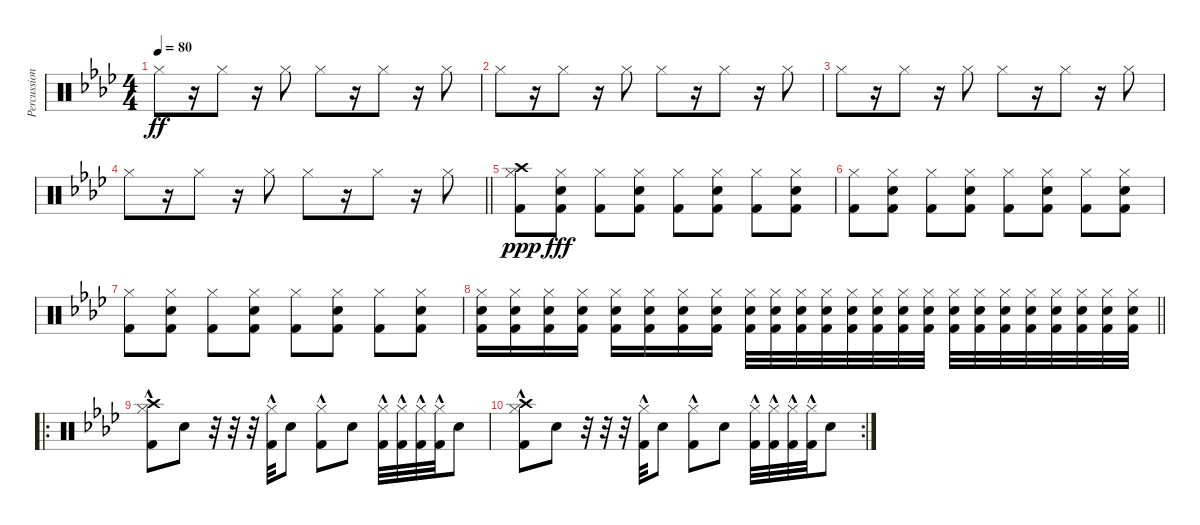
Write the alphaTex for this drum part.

\track ("Percussion" "Percussion") {instrument percussion}
\staff {score}
\articulation defaults
\ts (4 4)
\tempo 80
\clef neutral
\ks fminor "Hi-Hat (closed)".8{dy ff}
r.16 "Hi-Hat (closed)".8 r.16 "Hi-Hat (closed)".8 "Hi-Hat (closed)".8 r.16 "Hi-Hat (closed)".8 r.16 "Hi-Hat (closed)".8 |
"Hi-Hat (closed)".8 r.16 "Hi-Hat (closed)".8 r.16 "Hi-Hat (closed)".8 "Hi-Hat (closed)".8 r.16 "Hi-Hat (closed)".8 r.16 "Hi-Hat (closed)".8 |
"Hi-Hat (closed)".8 r.16 "Hi-Hat (closed)".8 r.16 "Hi-Hat (closed)".8 "Hi-Hat (closed)".8 r.16 "Hi-Hat (closed)".8 r.16 "Hi-Hat (closed)".8 |
\barLineRight lightlight "Hi-Hat (closed)".8
r.16 "Hi-Hat (closed)".8 r.16 "Hi-Hat (closed)".8 "Hi-Hat (closed)".8 r.16 "Hi-Hat (closed)".8 r.16 "Hi-Hat (closed)".8 |
("Hi-Hat (closed)" "Kick (hit) 2" "Crash high (hit)").8{dy ppp} ("Hi-Hat (closed)" "Kick (hit) 2" "Snare (hit) 2").8{dy fff} ("Hi-Hat (closed)" "Kick (hit) 2").8 ("Hi-Hat (closed)" "Kick (hit) 2" "Snare (hit) 2").8 ("Hi-Hat (closed)" "Kick (hit) 2").8 ("Hi-Hat (closed)" "Kick (hit) 2" "Snare (hit) 2").8 ("Hi-Hat (closed)" "Kick (hit) 2").8 ("Hi-Hat (closed)" "Kick (hit) 2" "Snare (hit) 2").8 |
("Hi-Hat (closed)" "Kick (hit) 2").8 ("Hi-Hat (closed)" "Kick (hit) 2" "Snare (hit) 2").8 ("Hi-Hat (closed)" "Kick (hit) 2").8 ("Hi-Hat (closed)" "Kick (hit) 2" "Snare (hit) 2").8 ("Hi-Hat (closed)" "Kick (hit) 2").8 ("Hi-Hat (closed)" "Kick (hit) 2" "Snare (hit) 2").8 ("Hi-Hat (closed)" "Kick (hit) 2").8 ("Hi-Hat (closed)" "Kick (hit) 2" "Snare (hit) 2").8 |
("Hi-Hat (closed)" "Kick (hit) 2").8 ("Hi-Hat (closed)" "Kick (hit) 2" "Snare (hit) 2").8 ("Hi-Hat (closed)" "Kick (hit) 2").8 ("Hi-Hat (closed)" "Kick (hit) 2" "Snare (hit) 2").8 ("Hi-Hat (closed)" "Kick (hit) 2").8 ("Hi-Hat (closed)" "Kick (hit) 2" "Snare (hit) 2").8 ("Hi-Hat (closed)" "Kick (hit) 2").8 ("Hi-Hat (closed)" "Kick (hit) 2" "Snare (hit) 2").8 |
\barLineRight lightlight
("Hi-Hat (closed)" "Kick (hit) 2" "Snare (hit) 2").16 ("Hi-Hat (closed)" "Kick (hit) 2" "Snare (hit) 2").16 ("Hi-Hat (closed)" "Kick (hit) 2" "Snare (hit) 2").16 ("Hi-Hat (closed)" "Kick (hit) 2" "Snare (hit) 2").16 ("Hi-Hat (closed)" "Kick (hit) 2" "Snare (hit) 2").16 ("Hi-Hat (closed)" "Kick (hit) 2" "Snare (hit) 2").16 ("Hi-Hat (closed)" "Kick (hit) 2" "Snare (hit) 2").16 ("Hi-Hat (closed)" "Kick (hit) 2" "Snare (hit) 2").16 ("Hi-Hat (closed)" "Kick (hit) 2" "Snare (hit) 2").32 ("Hi-Hat (closed)" "Kick (hit) 2" "Snare (hit) 2").32 ("Hi-Hat (closed)" "Kick (hit) 2" "Snare (hit) 2").32 ("Hi-Hat (closed)" "Kick (hit) 2" "Snare (hit) 2").32 ("Hi-Hat (closed)" "Kick (hit) 2" "Snare (hit) 2").32 ("Hi-Hat (closed)" "Kick (hit) 2" "Snare (hit) 2").32 ("Hi-Hat (closed)" "Kick (hit) 2" "Snare (hit) 2").32 ("Hi-Hat (closed)" "Kick (hit) 2" "Snare (hit) 2").32 ("Hi-Hat (closed)" "Kick (hit) 2" "Snare (hit) 2").32 ("Hi-Hat (closed)" "Kick (hit) 2" "Snare (hit) 2").32 ("Hi-Hat (closed)" "Kick (hit) 2" "Snare (hit) 2").32 ("Hi-Hat (closed)" "Kick (hit) 2" "Snare (hit) 2").32 ("Hi-Hat (closed)" "Kick (hit) 2" "Snare (hit) 2").32 ("Hi-Hat (closed)" "Kick (hit) 2" "Snare (hit) 2").32 ("Hi-Hat (closed)" "Kick (hit) 2" "Snare (hit) 2").32 ("Hi-Hat (closed)" "Kick (hit) 2" "Snare (hit) 2").32 |
\ro
("Hi-Hat (closed)"{hac} "Kick (hit) 2"{hac} "Crash high (hit)").8 "Snare (hit) 2".8 r.32 r.32 r.32 ("Hi-Hat (closed)"{hac} "Kick (hit) 2"{hac}).32 "Snare (hit) 2".8 ("Hi-Hat (closed)"{hac} "Kick (hit) 2"{hac}).8 "Snare (hit) 2".8 ("Kick (hit) 2"{hac} "Hi-Hat (closed)"{hac}).32 ("Kick (hit) 2"{hac} "Hi-Hat (closed)"{hac}).32 ("Kick (hit) 2"{hac} "Hi-Hat (closed)").32 ("Hi-Hat (closed)"{hac} "Kick (hit) 2"{hac}).32 "Snare (hit) 2".8 |
\rc 2
("Hi-Hat (closed)"{hac} "Kick (hit) 2"{hac} "Crash high (hit)").8 "Snare (hit) 2".8 r.32 r.32 r.32 ("Hi-Hat (closed)"{hac} "Kick (hit) 2"{hac}).32 "Snare (hit) 2".8 ("Hi-Hat (closed)"{hac} "Kick (hit) 2"{hac}).8 "Snare (hit) 2".8 ("Kick (hit) 2"{hac} "Hi-Hat (closed)"{hac}).32 ("Kick (hit) 2"{hac} "Hi-Hat (closed)"{hac}).32 ("Kick (hit) 2"{hac} "Hi-Hat (closed)").32 ("Hi-Hat (closed)"{hac} "Kick (hit) 2"{hac}).32 "Snare (hit) 2".8
